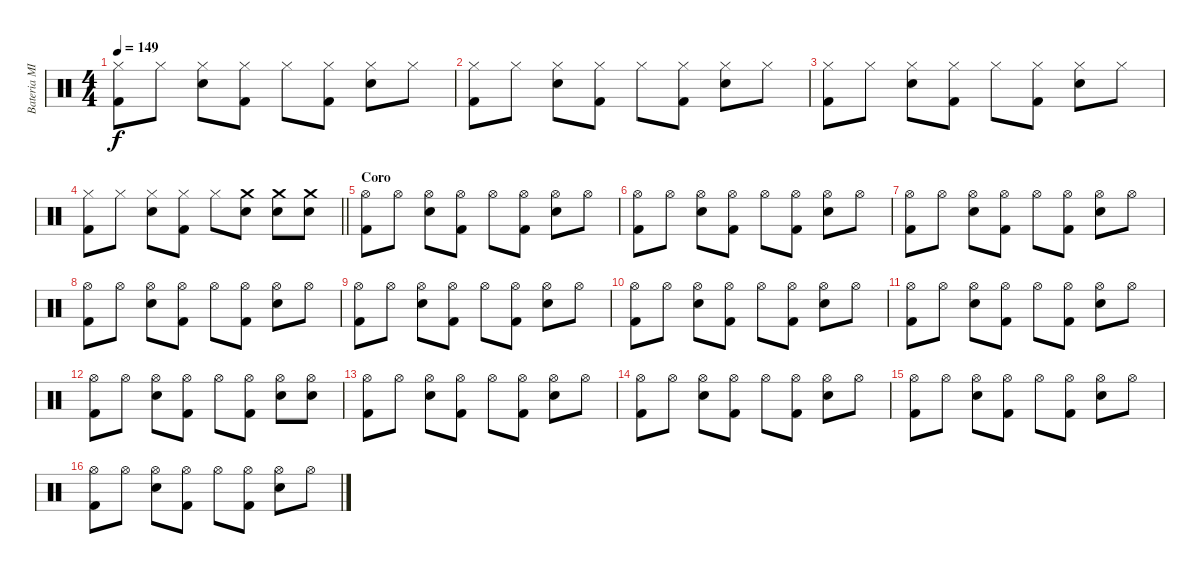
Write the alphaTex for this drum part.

\track ("Bateria MIDI" "Bateria MI") {instrument percussion}
\staff {score}
\articulation defaults
\ts (4 4)
\tempo 149
\clef neutral
\ks c
("Hi-Hat (closed)" "Kick (hit) 2").8{dy f} "Hi-Hat (closed)".8 ("Hi-Hat (closed)" "Snare (hit) 2").8 ("Hi-Hat (closed)" "Kick (hit) 2").8 "Hi-Hat (closed)".8 ("Hi-Hat (closed)" "Kick (hit) 2").8 ("Hi-Hat (closed)" "Snare (hit) 2").8 "Hi-Hat (closed)".8 |
("Hi-Hat (closed)" "Kick (hit) 2").8 "Hi-Hat (closed)".8 ("Hi-Hat (closed)" "Snare (hit) 2").8 ("Hi-Hat (closed)" "Kick (hit) 2").8 "Hi-Hat (closed)".8 ("Hi-Hat (closed)" "Kick (hit) 2").8 ("Hi-Hat (closed)" "Snare (hit) 2").8 "Hi-Hat (closed)".8 |
("Hi-Hat (closed)" "Kick (hit) 2").8 "Hi-Hat (closed)".8 ("Hi-Hat (closed)" "Snare (hit) 2").8 ("Hi-Hat (closed)" "Kick (hit) 2").8 "Hi-Hat (closed)".8 ("Hi-Hat (closed)" "Kick (hit) 2").8 ("Hi-Hat (closed)" "Snare (hit) 2").8 "Hi-Hat (closed)".8 |
\barLineRight lightlight
("Hi-Hat (closed)" "Kick (hit) 2").8 "Hi-Hat (closed)".8 ("Hi-Hat (closed)" "Snare (hit) 2").8 ("Hi-Hat (closed)" "Kick (hit) 2").8 "Hi-Hat (closed)".8 ("Crash medium (hit)" "Snare (hit) 2").8 ("Crash medium (hit)" "Snare (hit) 2").8 ("Crash medium (hit)" "Snare (hit) 2").8 |
\section ("" "Coro")
("Hi-Hat (open)" "Kick (hit) 2").8 "Hi-Hat (open)".8 ("Hi-Hat (open)" "Snare (hit) 2").8 ("Hi-Hat (open)" "Kick (hit) 2").8 "Hi-Hat (open)".8 ("Hi-Hat (open)" "Kick (hit) 2").8 ("Hi-Hat (open)" "Snare (hit) 2").8 "Hi-Hat (open)".8 |
("Hi-Hat (open)" "Kick (hit) 2").8 "Hi-Hat (open)".8 ("Hi-Hat (open)" "Snare (hit) 2").8 ("Hi-Hat (open)" "Kick (hit) 2").8 "Hi-Hat (open)".8 ("Hi-Hat (open)" "Kick (hit) 2").8 ("Hi-Hat (open)" "Snare (hit) 2").8 "Hi-Hat (open)".8 |
("Hi-Hat (open)" "Kick (hit) 2").8 "Hi-Hat (open)".8 ("Hi-Hat (open)" "Snare (hit) 2").8 ("Hi-Hat (open)" "Kick (hit) 2").8 "Hi-Hat (open)".8 ("Hi-Hat (open)" "Kick (hit) 2").8 ("Hi-Hat (open)" "Snare (hit) 2").8 "Hi-Hat (open)".8 |
("Hi-Hat (open)" "Kick (hit) 2").8 "Hi-Hat (open)".8 ("Hi-Hat (open)" "Snare (hit) 2").8 ("Hi-Hat (open)" "Kick (hit) 2").8 "Hi-Hat (open)".8 ("Hi-Hat (open)" "Kick (hit) 2").8 ("Hi-Hat (open)" "Snare (hit) 2").8 "Hi-Hat (open)".8 |
("Hi-Hat (open)" "Kick (hit) 2").8 "Hi-Hat (open)".8 ("Hi-Hat (open)" "Snare (hit) 2").8 ("Hi-Hat (open)" "Kick (hit) 2").8 "Hi-Hat (open)".8 ("Hi-Hat (open)" "Kick (hit) 2").8 ("Hi-Hat (open)" "Snare (hit) 2").8 "Hi-Hat (open)".8 |
("Hi-Hat (open)" "Kick (hit) 2").8 "Hi-Hat (open)".8 ("Hi-Hat (open)" "Snare (hit) 2").8 ("Hi-Hat (open)" "Kick (hit) 2").8 "Hi-Hat (open)".8 ("Hi-Hat (open)" "Kick (hit) 2").8 ("Hi-Hat (open)" "Snare (hit) 2").8 "Hi-Hat (open)".8 |
("Hi-Hat (open)" "Kick (hit) 2").8 "Hi-Hat (open)".8 ("Hi-Hat (open)" "Snare (hit) 2").8 ("Hi-Hat (open)" "Kick (hit) 2").8 "Hi-Hat (open)".8 ("Hi-Hat (open)" "Kick (hit) 2").8 ("Hi-Hat (open)" "Snare (hit) 2").8 "Hi-Hat (open)".8 |
("Hi-Hat (open)" "Kick (hit) 2").8 "Hi-Hat (open)".8 ("Hi-Hat (open)" "Snare (hit) 2").8 ("Hi-Hat (open)" "Kick (hit) 2").8 "Hi-Hat (open)".8 ("Hi-Hat (open)" "Kick (hit) 2").8 ("Hi-Hat (open)" "Snare (hit) 2").8 ("Hi-Hat (open)" "Snare (hit) 2").8 |
("Hi-Hat (open)" "Kick (hit) 2").8 "Hi-Hat (open)".8 ("Hi-Hat (open)" "Snare (hit) 2").8 ("Hi-Hat (open)" "Kick (hit) 2").8 "Hi-Hat (open)".8 ("Hi-Hat (open)" "Kick (hit) 2").8 ("Hi-Hat (open)" "Snare (hit) 2").8 "Hi-Hat (open)".8 |
("Hi-Hat (open)" "Kick (hit) 2").8 "Hi-Hat (open)".8 ("Hi-Hat (open)" "Snare (hit) 2").8 ("Hi-Hat (open)" "Kick (hit) 2").8 "Hi-Hat (open)".8 ("Hi-Hat (open)" "Kick (hit) 2").8 ("Hi-Hat (open)" "Snare (hit) 2").8 "Hi-Hat (open)".8 |
("Hi-Hat (open)" "Kick (hit) 2").8 "Hi-Hat (open)".8 ("Hi-Hat (open)" "Snare (hit) 2").8 ("Hi-Hat (open)" "Kick (hit) 2").8 "Hi-Hat (open)".8 ("Hi-Hat (open)" "Kick (hit) 2").8 ("Hi-Hat (open)" "Snare (hit) 2").8 "Hi-Hat (open)".8 |
("Hi-Hat (open)" "Kick (hit) 2").8 "Hi-Hat (open)".8 ("Hi-Hat (open)" "Snare (hit) 2").8 ("Hi-Hat (open)" "Kick (hit) 2").8 "Hi-Hat (open)".8 ("Hi-Hat (open)" "Kick (hit) 2").8 ("Hi-Hat (open)" "Snare (hit) 2").8 "Hi-Hat (open)".8
